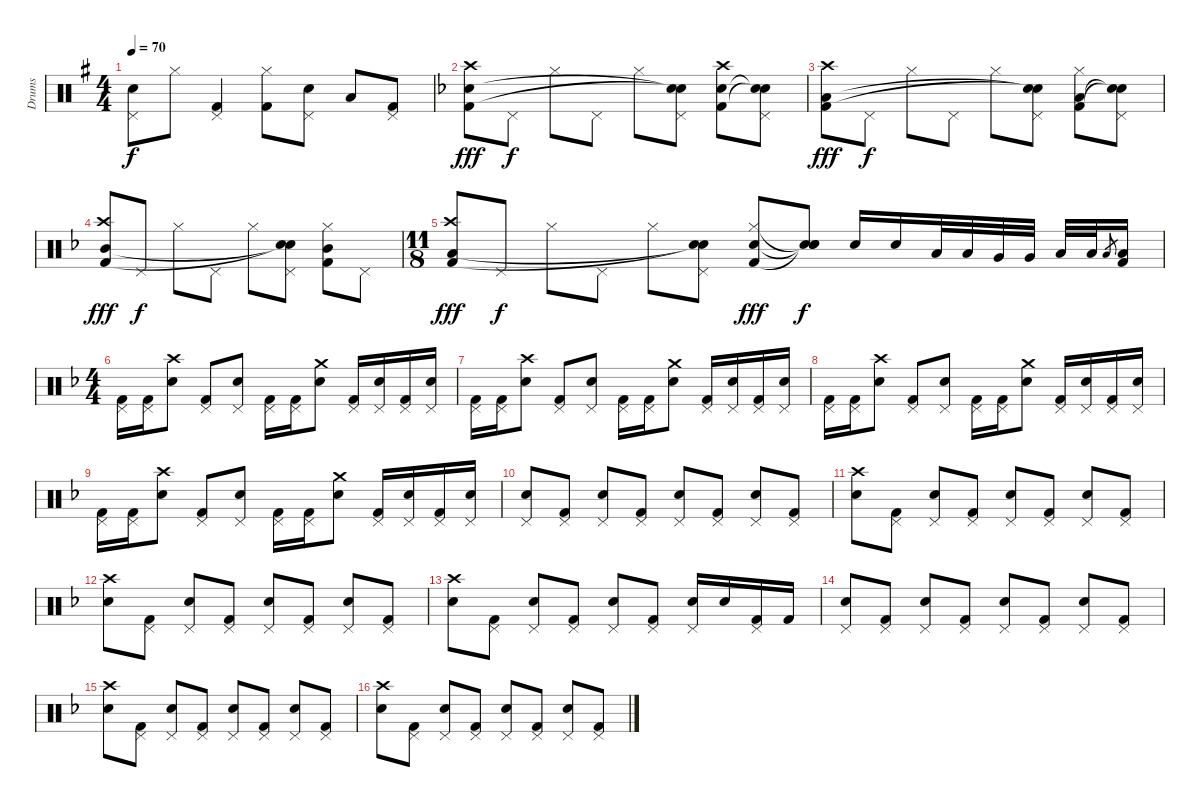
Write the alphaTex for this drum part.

\track ("Drums" "Drums") {instrument percussion}
\staff {score}
\articulation defaults
\ts (4 4)
\tempo 70
\clef neutral
\ks eminor
("Pedal Hi-Hat (hit)" "Snare (hit) 2").8{dy f} "Hi-Hat (closed)".8 ("Pedal Hi-Hat (hit)" "Kick (hit) 2").4 ("Hi-Hat (closed)" "Kick (hit) 2").8 ("Pedal Hi-Hat (hit)" "Snare (hit) 2").8 "Low Floor Tom (hit)".8 ("Pedal Hi-Hat (hit)" "Kick (hit) 2").8 |
\ks dminor
("Crash high (hit)" "Snare (hit) 2" "Kick (hit) 2").8{dy fff} "Pedal Hi-Hat (hit)".8{dy f} "Hi-Hat (closed)".8 "Pedal Hi-Hat (hit)".8 "Hi-Hat (closed)".8 ("Pedal Hi-Hat (hit)" "Snare (hit)"{t} "Snare (hit)"{t}).8 ("Crash high (hit)" "Snare (hit) 2" "Kick (hit) 2").8 ("Pedal Hi-Hat (hit)" "Snare (hit)"{t} "Snare (hit)"{t}).8 |
("Crash high (hit)" "Low Floor Tom (hit)" "Kick (hit) 2").8{dy fff} "Pedal Hi-Hat (hit)".8{dy f} "Hi-Hat (closed)".8 "Pedal Hi-Hat (hit)".8 "Hi-Hat (closed)".8 ("Pedal Hi-Hat (hit)" "Snare (hit)"{t} "Snare (hit)"{t}).8 ("Hi-Hat (closed)" "Low Floor Tom (hit)" "Kick (hit) 2").8 ("Pedal Hi-Hat (hit)" "Snare (hit)"{t} "Snare (hit)"{t}).8 |
("Crash high (hit)" "Mid Tom (hit)" "Kick (hit) 2").8{dy fff} "Pedal Hi-Hat (hit)".8{dy f} "Hi-Hat (closed)".8 "Pedal Hi-Hat (hit)".8 "Hi-Hat (closed)".8 ("Pedal Hi-Hat (hit)" "Snare (hit)"{t} "Snare (hit)"{t}).8 ("Hi-Hat (closed)" "Mid Tom (hit)" "Kick (hit) 2").8 "Pedal Hi-Hat (hit)".8 |
\ts (11 8)
("Crash high (hit)" "Low Tom (hit)" "Kick (hit) 2").8{dy fff} "Pedal Hi-Hat (hit)".8{dy f} "Hi-Hat (closed)".8 "Pedal Hi-Hat (hit)".8 "Hi-Hat (closed)".8 ("Pedal Hi-Hat (hit)" "Snare (hit)"{t} "Snare (hit)"{t}).8 ("Hi-Hat (closed)" "Snare (hit) 2" "Kick (hit) 2").8{dy fff} ("Snare (hit)"{t} "Snare (hit)"{t} "Snare (hit)"{t}).8{dy f} "Snare (hit) 2".16 "Snare (hit) 2".16 "Low Tom (hit)".32 "Low Tom (hit)".32 "Very Low Tom (hit)".32 "Very Low Tom (hit)".32 "Low Floor Tom (hit)".32 "Low Floor Tom (hit)".32 "Low Floor Tom (hit)".8{gr} ("Low Floor Tom (hit)" "Kick (hit) 2").16 |
\ts (4 4)
("Pedal Hi-Hat (hit)" "Kick (hit) 2").16 ("Pedal Hi-Hat (hit)" "Kick (hit) 2").16 ("Crash high (hit)" "Snare (hit) 2").8 ("Pedal Hi-Hat (hit)" "Kick (hit) 2").8 ("Pedal Hi-Hat (hit)" "Snare (hit) 2").8 ("Pedal Hi-Hat (hit)" "Kick (hit) 2").16 ("Pedal Hi-Hat (hit)" "Kick (hit) 2").16 ("Crash medium (hit)" "Snare (hit) 2").8 ("Pedal Hi-Hat (hit)" "Kick (hit) 2").16 ("Pedal Hi-Hat (hit)" "Snare (hit) 2").16 ("Pedal Hi-Hat (hit)" "Kick (hit) 2").16 ("Pedal Hi-Hat (hit)" "Snare (hit) 2").16 |
("Pedal Hi-Hat (hit)" "Kick (hit) 2").16 ("Pedal Hi-Hat (hit)" "Kick (hit) 2").16 ("Crash high (hit)" "Snare (hit) 2").8 ("Pedal Hi-Hat (hit)" "Kick (hit) 2").8 ("Pedal Hi-Hat (hit)" "Snare (hit) 2").8 ("Pedal Hi-Hat (hit)" "Kick (hit) 2").16 ("Pedal Hi-Hat (hit)" "Kick (hit) 2").16 ("Crash medium (hit)" "Snare (hit) 2").8 ("Pedal Hi-Hat (hit)" "Kick (hit) 2").16 ("Pedal Hi-Hat (hit)" "Snare (hit) 2").16 ("Pedal Hi-Hat (hit)" "Kick (hit) 2").16 ("Pedal Hi-Hat (hit)" "Snare (hit) 2").16 |
("Pedal Hi-Hat (hit)" "Kick (hit) 2").16 ("Pedal Hi-Hat (hit)" "Kick (hit) 2").16 ("Crash high (hit)" "Snare (hit) 2").8 ("Pedal Hi-Hat (hit)" "Kick (hit) 2").8 ("Pedal Hi-Hat (hit)" "Snare (hit) 2").8 ("Pedal Hi-Hat (hit)" "Kick (hit) 2").16 ("Pedal Hi-Hat (hit)" "Kick (hit) 2").16 ("Crash medium (hit)" "Snare (hit) 2").8 ("Pedal Hi-Hat (hit)" "Kick (hit) 2").16 ("Pedal Hi-Hat (hit)" "Snare (hit) 2").16 ("Pedal Hi-Hat (hit)" "Kick (hit) 2").16 ("Pedal Hi-Hat (hit)" "Snare (hit) 2").16 |
("Pedal Hi-Hat (hit)" "Kick (hit) 2").16 ("Pedal Hi-Hat (hit)" "Kick (hit) 2").16 ("Crash high (hit)" "Snare (hit) 2").8 ("Pedal Hi-Hat (hit)" "Kick (hit) 2").8 ("Pedal Hi-Hat (hit)" "Snare (hit) 2").8 ("Pedal Hi-Hat (hit)" "Kick (hit) 2").16 ("Pedal Hi-Hat (hit)" "Kick (hit) 2").16 ("Crash medium (hit)" "Snare (hit) 2").8 ("Pedal Hi-Hat (hit)" "Kick (hit) 2").16 ("Pedal Hi-Hat (hit)" "Snare (hit) 2").16 ("Pedal Hi-Hat (hit)" "Kick (hit) 2").16 ("Pedal Hi-Hat (hit)" "Snare (hit) 2").16 |
("Pedal Hi-Hat (hit)" "Snare (hit) 2").8 ("Pedal Hi-Hat (hit)" "Kick (hit) 2").8 ("Pedal Hi-Hat (hit)" "Snare (hit) 2").8 ("Pedal Hi-Hat (hit)" "Kick (hit) 2").8 ("Pedal Hi-Hat (hit)" "Snare (hit) 2").8 ("Pedal Hi-Hat (hit)" "Kick (hit) 2").8 ("Pedal Hi-Hat (hit)" "Snare (hit) 2").8 ("Pedal Hi-Hat (hit)" "Kick (hit) 2").8 |
("Crash high (hit)" "Snare (hit) 2").8 ("Pedal Hi-Hat (hit)" "Kick (hit) 2").8 ("Pedal Hi-Hat (hit)" "Snare (hit) 2").8 ("Pedal Hi-Hat (hit)" "Kick (hit) 2").8 ("Pedal Hi-Hat (hit)" "Snare (hit) 2").8 ("Pedal Hi-Hat (hit)" "Kick (hit) 2").8 ("Pedal Hi-Hat (hit)" "Snare (hit) 2").8 ("Pedal Hi-Hat (hit)" "Kick (hit) 2").8 |
("Crash high (hit)" "Snare (hit) 2").8 ("Pedal Hi-Hat (hit)" "Kick (hit) 2").8 ("Pedal Hi-Hat (hit)" "Snare (hit) 2").8 ("Pedal Hi-Hat (hit)" "Kick (hit) 2").8 ("Pedal Hi-Hat (hit)" "Snare (hit) 2").8 ("Pedal Hi-Hat (hit)" "Kick (hit) 2").8 ("Pedal Hi-Hat (hit)" "Snare (hit) 2").8 ("Pedal Hi-Hat (hit)" "Kick (hit) 2").8 |
("Crash high (hit)" "Snare (hit) 2").8 ("Pedal Hi-Hat (hit)" "Kick (hit) 2").8 ("Pedal Hi-Hat (hit)" "Snare (hit) 2").8 ("Pedal Hi-Hat (hit)" "Kick (hit) 2").8 ("Pedal Hi-Hat (hit)" "Snare (hit) 2").8 ("Pedal Hi-Hat (hit)" "Kick (hit) 2").8 ("Pedal Hi-Hat (hit)" "Snare (hit) 2").16 "Snare (hit) 2".16 ("Pedal Hi-Hat (hit)" "Kick (hit) 2").16 "Kick (hit) 2".16 |
("Pedal Hi-Hat (hit)" "Snare (hit) 2").8 ("Pedal Hi-Hat (hit)" "Kick (hit) 2").8 ("Pedal Hi-Hat (hit)" "Snare (hit) 2").8 ("Pedal Hi-Hat (hit)" "Kick (hit) 2").8 ("Pedal Hi-Hat (hit)" "Snare (hit) 2").8 ("Pedal Hi-Hat (hit)" "Kick (hit) 2").8 ("Pedal Hi-Hat (hit)" "Snare (hit) 2").8 ("Pedal Hi-Hat (hit)" "Kick (hit) 2").8 |
("Crash high (hit)" "Snare (hit) 2").8 ("Pedal Hi-Hat (hit)" "Kick (hit) 2").8 ("Pedal Hi-Hat (hit)" "Snare (hit) 2").8 ("Pedal Hi-Hat (hit)" "Kick (hit) 2").8 ("Pedal Hi-Hat (hit)" "Snare (hit) 2").8 ("Pedal Hi-Hat (hit)" "Kick (hit) 2").8 ("Pedal Hi-Hat (hit)" "Snare (hit) 2").8 ("Pedal Hi-Hat (hit)" "Kick (hit) 2").8 |
("Crash high (hit)" "Snare (hit) 2").8 ("Pedal Hi-Hat (hit)" "Kick (hit) 2").8 ("Pedal Hi-Hat (hit)" "Snare (hit) 2").8 ("Pedal Hi-Hat (hit)" "Kick (hit) 2").8 ("Pedal Hi-Hat (hit)" "Snare (hit) 2").8 ("Pedal Hi-Hat (hit)" "Kick (hit) 2").8 ("Pedal Hi-Hat (hit)" "Snare (hit) 2").8 ("Pedal Hi-Hat (hit)" "Kick (hit) 2").8
